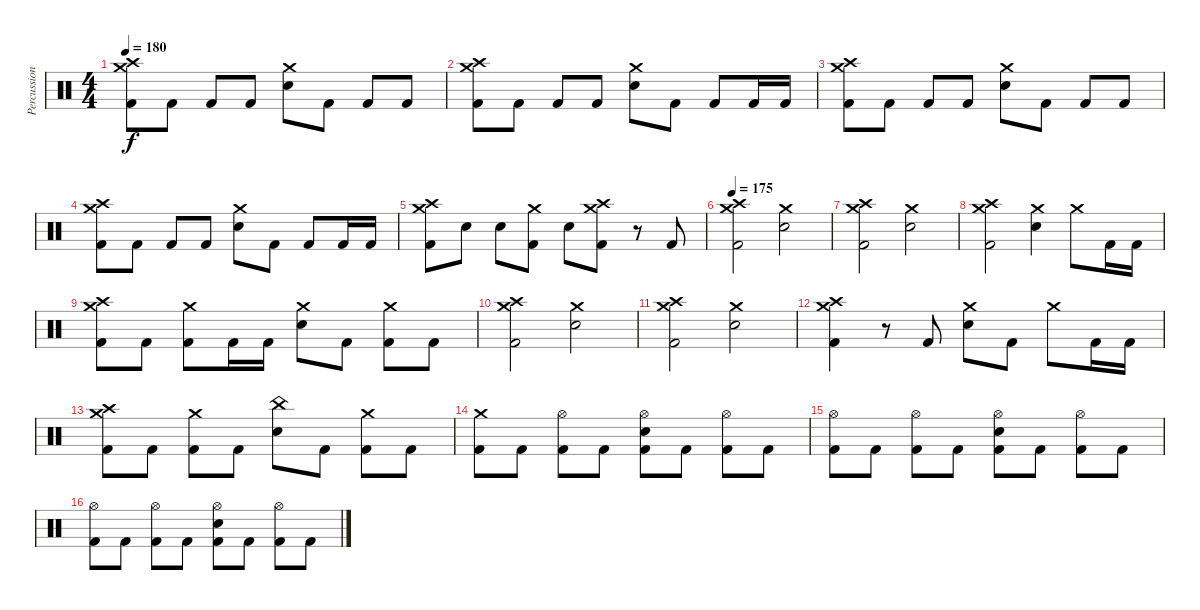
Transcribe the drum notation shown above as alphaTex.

\track ("Percussion" "Percussion") {instrument percussion}
\staff {score}
\articulation defaults
\ts (4 4)
\tempo 180
\clef neutral
\ks c
("Kick (hit) 2" "Crash medium (hit)" "Crash high (hit)").8{dy f} "Kick (hit) 2".8 "Kick (hit) 2".8 "Kick (hit) 2".8 ("Electric Snare (hit)" "Crash medium (hit)").8 "Kick (hit) 2".8 "Kick (hit) 2".8 "Kick (hit) 2".8 |
("Kick (hit) 2" "Crash medium (hit)" "Crash high (hit)").8 "Kick (hit) 2".8 "Kick (hit) 2".8 "Kick (hit) 2".8 ("Electric Snare (hit)" "Crash medium (hit)").8 "Kick (hit) 2".8 "Kick (hit) 2".8 "Kick (hit) 2".16 "Kick (hit) 2".16 |
("Kick (hit) 2" "Crash medium (hit)" "Crash high (hit)").8 "Kick (hit) 2".8 "Kick (hit) 2".8 "Kick (hit) 2".8 ("Electric Snare (hit)" "Crash medium (hit)").8 "Kick (hit) 2".8 "Kick (hit) 2".8 "Kick (hit) 2".8 |
("Kick (hit) 2" "Crash medium (hit)" "Crash high (hit)").8 "Kick (hit) 2".8 "Kick (hit) 2".8 "Kick (hit) 2".8 ("Electric Snare (hit)" "Crash medium (hit)").8 "Kick (hit) 2".8 "Kick (hit) 2".8 "Kick (hit) 2".16 "Kick (hit) 2".16 |
("Kick (hit) 2" "Crash medium (hit)" "Crash high (hit)").8 "Electric Snare (hit)".8 "Electric Snare (hit)".8 ("Kick (hit) 2" "Crash medium (hit)").8 "Electric Snare (hit)".8 ("Kick (hit) 2" "Crash medium (hit)" "Crash high (hit)").8 r.8 "Kick (hit) 2".8 |
\tempo 175
("Kick (hit) 2" "Crash medium (hit)" "Crash high (hit)").2 ("Electric Snare (hit)" "Crash medium (hit)").2 |
("Kick (hit) 2" "Crash medium (hit)" "Crash high (hit)").2 ("Electric Snare (hit)" "Crash medium (hit)").2 |
("Kick (hit) 2" "Crash medium (hit)" "Crash high (hit)").2 ("Electric Snare (hit)" "Crash medium (hit)").4 "Crash medium (hit)".8 "Kick (hit) 2".16 "Kick (hit) 2".16 |
("Kick (hit) 2" "Crash medium (hit)" "Crash high (hit)").8 "Kick (hit) 2".8 ("Kick (hit) 2" "Crash medium (hit)").8 "Kick (hit) 2".16 "Kick (hit) 2".16 ("Electric Snare (hit)" "Crash medium (hit)").8 "Kick (hit) 2".8 ("Kick (hit) 2" "Crash medium (hit)").8 "Kick (hit) 2".8 |
("Kick (hit) 2" "Crash medium (hit)" "Crash high (hit)").2 ("Electric Snare (hit)" "Crash medium (hit)").2 |
("Kick (hit) 2" "Crash medium (hit)" "Crash high (hit)").2 ("Electric Snare (hit)" "Crash medium (hit)").2 |
("Kick (hit) 2" "Crash medium (hit)" "Crash high (hit)").4 r.8 "Kick (hit) 2".8 ("Electric Snare (hit)" "Crash medium (hit)").8 "Kick (hit) 2".8 "Crash medium (hit)".8 "Kick (hit) 2".16 "Kick (hit) 2".16 |
("Kick (hit) 2" "Crash medium (hit)" "Crash high (hit)").8 "Kick (hit) 2".8 ("Kick (hit) 2" "Crash medium (hit)").8 "Kick (hit) 2".8 ("Electric Snare (hit)" "China (hit)").8 "Kick (hit) 2".8 ("Kick (hit) 2" "Crash medium (hit)").8 "Kick (hit) 2".8 |
("Kick (hit) 2" "Crash medium (hit)").8 "Kick (hit) 2".8 ("Kick (hit) 2" "Hi-Hat (open)").8 "Kick (hit) 2".8 ("Kick (hit) 2" "Electric Snare (hit)" "Hi-Hat (open)").8 "Kick (hit) 2".8 ("Kick (hit) 2" "Hi-Hat (open)").8 "Kick (hit) 2".8 |
("Kick (hit) 2" "Hi-Hat (open)").8 "Kick (hit) 2".8 ("Kick (hit) 2" "Hi-Hat (open)").8 "Kick (hit) 2".8 ("Kick (hit) 2" "Electric Snare (hit)" "Hi-Hat (open)").8 "Kick (hit) 2".8 ("Kick (hit) 2" "Hi-Hat (open)").8 "Kick (hit) 2".8 |
("Kick (hit) 2" "Hi-Hat (open)").8 "Kick (hit) 2".8 ("Kick (hit) 2" "Hi-Hat (open)").8 "Kick (hit) 2".8 ("Kick (hit) 2" "Electric Snare (hit)" "Hi-Hat (open)").8 "Kick (hit) 2".8 ("Kick (hit) 2" "Hi-Hat (open)").8 "Kick (hit) 2".8
